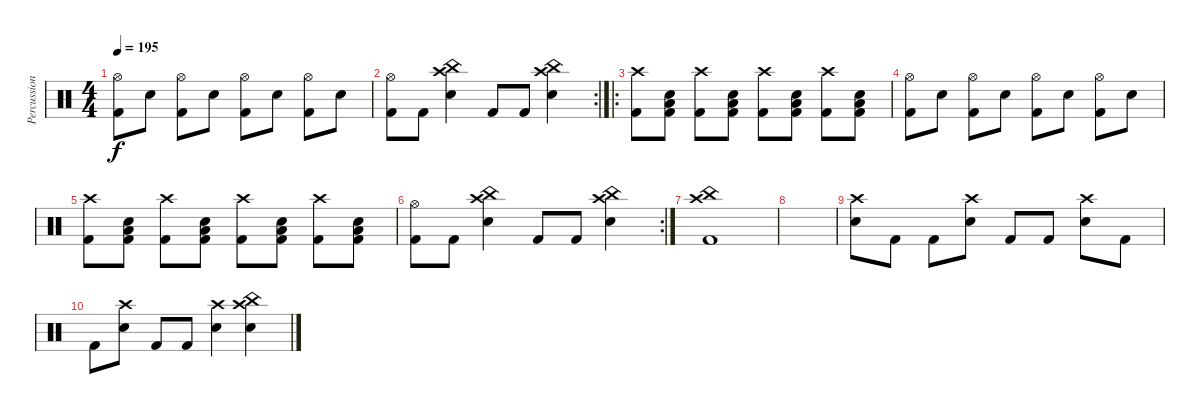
\track ("Percussion" "Percussion") {instrument percussion}
\staff {score}
\articulation defaults
\ts (4 4)
\tempo 195
\clef neutral
\ks c
("Hi-Hat (open)" "Kick (hit) 2").8{dy f} "Snare (hit) 2".8 ("Hi-Hat (open)" "Kick (hit) 2").8 "Snare (hit) 2".8 ("Hi-Hat (open)" "Kick (hit) 2").8 "Snare (hit) 2".8 ("Hi-Hat (open)" "Kick (hit) 2").8 "Snare (hit) 2".8 |
\rc 2
("Hi-Hat (open)" "Kick (hit) 2").8 "Kick (hit) 2".8 ("Crash high (hit)" "China (hit)" "Snare (hit) 2").4 "Kick (hit) 2".8 "Kick (hit) 2".8 ("Crash high (hit)" "China (hit)" "Snare (hit) 2").4 |
\ro
("Crash high (hit)" "Kick (hit) 2").8 ("Low Floor Tom (hit)" "Snare (hit) 2" "Kick (hit) 2").8 ("Crash high (hit)" "Kick (hit) 2").8 ("Low Floor Tom (hit)" "Snare (hit) 2" "Kick (hit) 2").8 ("Crash high (hit)" "Kick (hit) 2").8 ("Low Floor Tom (hit)" "Snare (hit) 2" "Kick (hit) 2").8 ("Crash high (hit)" "Kick (hit) 2").8 ("Low Floor Tom (hit)" "Snare (hit) 2" "Kick (hit) 2").8 |
("Hi-Hat (open)" "Kick (hit) 2").8 "Snare (hit) 2".8 ("Hi-Hat (open)" "Kick (hit) 2").8 "Snare (hit) 2".8 ("Hi-Hat (open)" "Kick (hit) 2").8 "Snare (hit) 2".8 ("Hi-Hat (open)" "Kick (hit) 2").8 "Snare (hit) 2".8 |
("Crash high (hit)" "Kick (hit) 2").8 ("Low Floor Tom (hit)" "Snare (hit) 2" "Kick (hit) 2").8 ("Crash high (hit)" "Kick (hit) 2").8 ("Low Floor Tom (hit)" "Snare (hit) 2" "Kick (hit) 2").8 ("Crash high (hit)" "Kick (hit) 2").8 ("Low Floor Tom (hit)" "Snare (hit) 2" "Kick (hit) 2").8 ("Crash high (hit)" "Kick (hit) 2").8 ("Low Floor Tom (hit)" "Snare (hit) 2" "Kick (hit) 2").8 |
\rc 2
("Hi-Hat (open)" "Kick (hit) 2").8 "Kick (hit) 2".8 ("Crash high (hit)" "China (hit)" "Snare (hit) 2").4 "Kick (hit) 2".8 "Kick (hit) 2".8 ("Crash high (hit)" "China (hit)" "Snare (hit) 2").4 |
("Crash high (hit)" "China (hit)" "Kick (hit) 2").1 |
|
("Crash high (hit)" "Snare (hit) 2").8 "Kick (hit) 2".8 "Kick (hit) 2".8 ("Crash high (hit)" "Snare (hit) 2").8 "Kick (hit) 2".8 "Kick (hit) 2".8 ("Crash high (hit)" "Snare (hit) 2").8 "Kick (hit) 2".8 |
"Kick (hit) 2".8 ("Crash high (hit)" "Snare (hit) 2").8 "Kick (hit) 2".8 "Kick (hit) 2".8 ("Crash high (hit)" "Snare (hit) 2").4 ("Crash high (hit)" "China (hit)" "Snare (hit) 2").4
